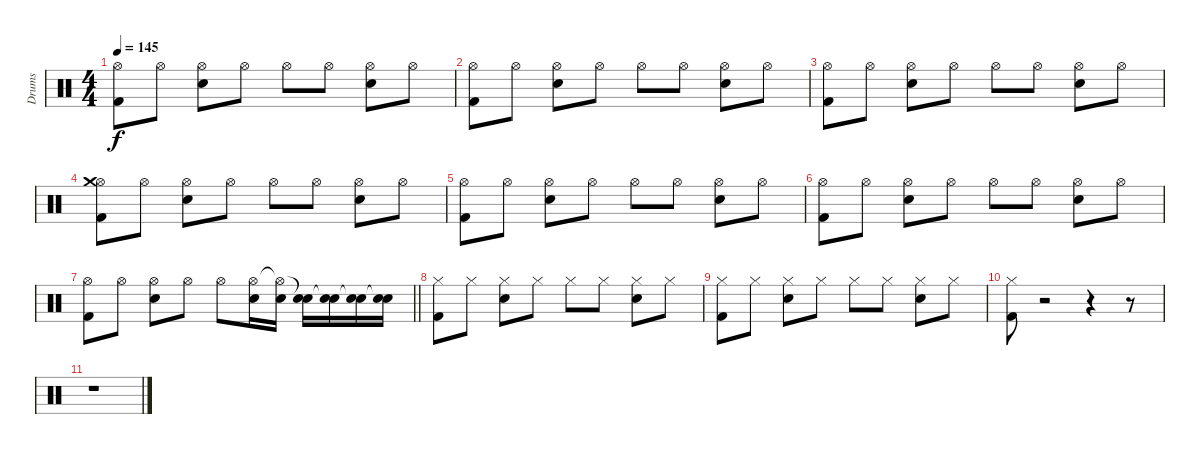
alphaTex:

\track ("Drums" "Drums") {instrument percussion}
\staff {score}
\articulation defaults
\ts (4 4)
\tempo 145
\clef neutral
\ks c
("Hi-Hat (open)" "Kick (hit) 2").8{dy f} "Hi-Hat (open)".8 ("Hi-Hat (open)" "Electric Snare (hit)").8 "Hi-Hat (open)".8 "Hi-Hat (open)".8 "Hi-Hat (open)".8 ("Hi-Hat (open)" "Electric Snare (hit)").8 "Hi-Hat (open)".8 |
("Hi-Hat (open)" "Kick (hit) 2").8 "Hi-Hat (open)".8 ("Hi-Hat (open)" "Electric Snare (hit)").8 "Hi-Hat (open)".8 "Hi-Hat (open)".8 "Hi-Hat (open)".8 ("Hi-Hat (open)" "Electric Snare (hit)").8 "Hi-Hat (open)".8 |
("Hi-Hat (open)" "Kick (hit) 2").8 "Hi-Hat (open)".8 ("Hi-Hat (open)" "Electric Snare (hit)").8 "Hi-Hat (open)".8 "Hi-Hat (open)".8 "Hi-Hat (open)".8 ("Hi-Hat (open)" "Electric Snare (hit)").8 "Hi-Hat (open)".8 |
("Hi-Hat (open)" "Kick (hit) 2" "Crash medium (hit)").8 "Hi-Hat (open)".8 ("Hi-Hat (open)" "Electric Snare (hit)").8 "Hi-Hat (open)".8 "Hi-Hat (open)".8 "Hi-Hat (open)".8 ("Hi-Hat (open)" "Electric Snare (hit)").8 "Hi-Hat (open)".8 |
("Hi-Hat (open)" "Kick (hit) 2").8 "Hi-Hat (open)".8 ("Hi-Hat (open)" "Electric Snare (hit)").8 "Hi-Hat (open)".8 "Hi-Hat (open)".8 "Hi-Hat (open)".8 ("Hi-Hat (open)" "Electric Snare (hit)").8 "Hi-Hat (open)".8 |
("Hi-Hat (open)" "Kick (hit) 2").8 "Hi-Hat (open)".8 ("Hi-Hat (open)" "Electric Snare (hit)").8 "Hi-Hat (open)".8 "Hi-Hat (open)".8 "Hi-Hat (open)".8 ("Hi-Hat (open)" "Electric Snare (hit)").8 "Hi-Hat (open)".8 |
\barLineRight lightlight
("Hi-Hat (open)" "Kick (hit) 2").8 "Hi-Hat (open)".8 ("Hi-Hat (open)" "Electric Snare (hit)").8 "Hi-Hat (open)".8 "Hi-Hat (open)".8 ("Hi-Hat (open)" "Electric Snare (hit)").16 ("Hi-Hat (open)"{t} "Electric Snare (hit)").16 ("Snare (hit)"{t} "Electric Snare (hit)").16 ("Snare (hit)"{t} "Electric Snare (hit)").16 ("Snare (hit)"{t} "Electric Snare (hit)").16 ("Snare (hit)"{t} "Electric Snare (hit)").16 |
("Hi-Hat (closed)" "Kick (hit) 2").8 "Hi-Hat (closed)".8 ("Hi-Hat (closed)" "Electric Snare (hit)").8 "Hi-Hat (closed)".8 "Hi-Hat (closed)".8 "Hi-Hat (closed)".8 ("Hi-Hat (closed)" "Electric Snare (hit)").8 "Hi-Hat (closed)".8 |
("Hi-Hat (closed)" "Kick (hit) 2").8 "Hi-Hat (closed)".8 ("Hi-Hat (closed)" "Electric Snare (hit)").8 "Hi-Hat (closed)".8 "Hi-Hat (closed)".8 "Hi-Hat (closed)".8 ("Hi-Hat (closed)" "Electric Snare (hit)").8 "Hi-Hat (closed)".8 |
("Hi-Hat (closed)" "Kick (hit) 2").8 r.2 r.4 r.8 |
r.1
